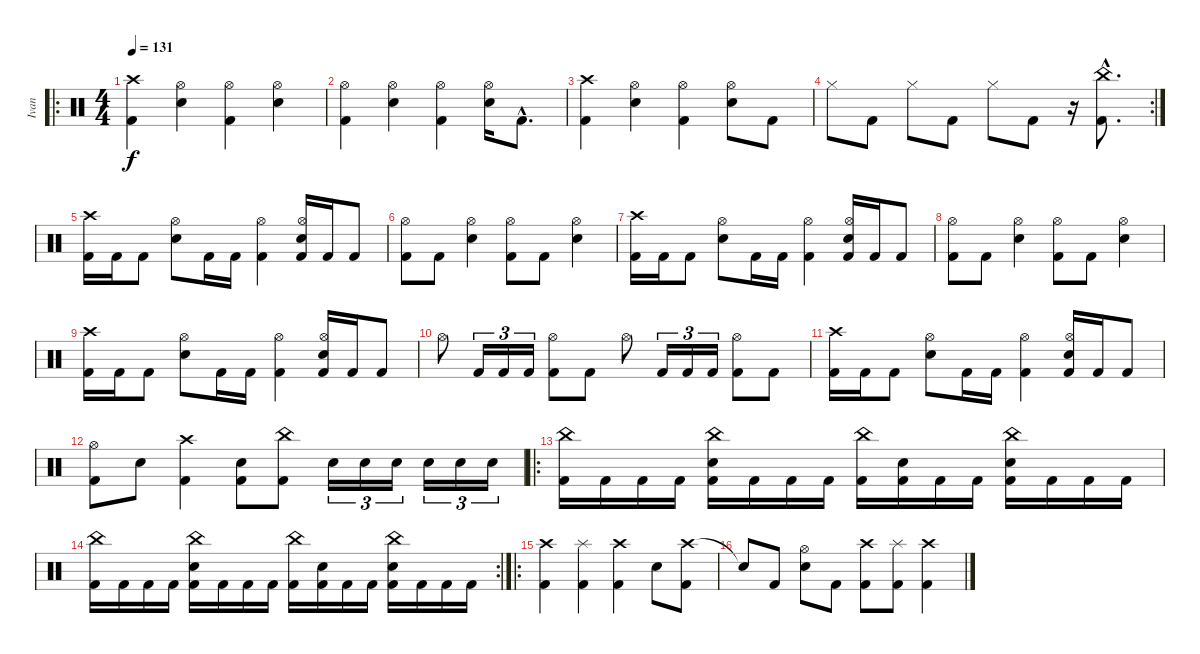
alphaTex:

\track ("Ivan" "Ivan") {instrument percussion}
\staff {score}
\articulation defaults
\ro
\ts (4 4)
\tempo 131
\clef neutral
\ks c
("Crash high (hit)" "Kick (hit) 2").4{dy f} ("Hi-Hat (open)" "Electric Snare (hit)").4 ("Hi-Hat (open)" "Kick (hit) 2").4 ("Hi-Hat (open)" "Electric Snare (hit)").4 |
("Hi-Hat (open)" "Kick (hit) 2").4 ("Hi-Hat (open)" "Electric Snare (hit)").4 ("Hi-Hat (open)" "Kick (hit) 2").4 ("Hi-Hat (open)" "Electric Snare (hit)").16 "Kick (hit) 2"{hac}.8{d} |
("Crash high (hit)" "Kick (hit) 2").4 ("Hi-Hat (open)" "Electric Snare (hit)").4 ("Hi-Hat (open)" "Kick (hit) 2").4 ("Hi-Hat (open)" "Electric Snare (hit)").8 "Kick (hit) 2".8 |
\rc 2 "Hi-Hat (closed)".8 "Kick (hit) 2".8 "Hi-Hat (closed)".8 "Kick (hit) 2".8 "Hi-Hat (closed)".8 "Kick (hit) 2".8
r.16 ("China (hit)"{hac} "Kick (hit) 2"{hac}).8{d} |
("Crash high (hit)" "Kick (hit) 2").16 "Kick (hit) 2".16 "Kick (hit) 2".8 ("Hi-Hat (open)" "Electric Snare (hit)").8 "Kick (hit) 2".16 "Kick (hit) 2".16 ("Hi-Hat (open)" "Kick (hit) 2").4 ("Hi-Hat (open)" "Electric Snare (hit)" "Kick (hit) 2").16 "Kick (hit) 2".16 "Kick (hit) 2".8 |
("Hi-Hat (open)" "Kick (hit) 2").8 "Kick (hit) 2".8 ("Hi-Hat (open)" "Electric Snare (hit)").4 ("Hi-Hat (open)" "Kick (hit) 2").8 "Kick (hit) 2".8 ("Hi-Hat (open)" "Electric Snare (hit)").4 |
("Crash high (hit)" "Kick (hit) 2").16 "Kick (hit) 2".16 "Kick (hit) 2".8 ("Hi-Hat (open)" "Electric Snare (hit)").8 "Kick (hit) 2".16 "Kick (hit) 2".16 ("Hi-Hat (open)" "Kick (hit) 2").4 ("Hi-Hat (open)" "Electric Snare (hit)" "Kick (hit) 2").16 "Kick (hit) 2".16 "Kick (hit) 2".8 |
("Hi-Hat (open)" "Kick (hit) 2").8 "Kick (hit) 2".8 ("Hi-Hat (open)" "Electric Snare (hit)").4 ("Hi-Hat (open)" "Kick (hit) 2").8 "Kick (hit) 2".8 ("Hi-Hat (open)" "Electric Snare (hit)").4 |
("Crash high (hit)" "Kick (hit) 2").16 "Kick (hit) 2".16 "Kick (hit) 2".8 ("Hi-Hat (open)" "Electric Snare (hit)").8 "Kick (hit) 2".16 "Kick (hit) 2".16 ("Hi-Hat (open)" "Kick (hit) 2").4 ("Hi-Hat (open)" "Electric Snare (hit)" "Kick (hit) 2").16 "Kick (hit) 2".16 "Kick (hit) 2".8 |
"Hi-Hat (open)".8 "Kick (hit) 2".16{tu (3 2)} "Kick (hit) 2".16{tu (3 2)} "Kick (hit) 2".16{tu (3 2)} ("Hi-Hat (open)" "Kick (hit) 2").8 "Kick (hit) 2".8 "Hi-Hat (open)".8 "Kick (hit) 2".16{tu (3 2)} "Kick (hit) 2".16{tu (3 2)} "Kick (hit) 2".16{tu (3 2)} ("Hi-Hat (open)" "Kick (hit) 2").8 "Kick (hit) 2".8 |
("Crash high (hit)" "Kick (hit) 2").16 "Kick (hit) 2".16 "Kick (hit) 2".8 ("Hi-Hat (open)" "Electric Snare (hit)").8 "Kick (hit) 2".16 "Kick (hit) 2".16 ("Hi-Hat (open)" "Kick (hit) 2").4 ("Hi-Hat (open)" "Electric Snare (hit)" "Kick (hit) 2").16 "Kick (hit) 2".16 "Kick (hit) 2".8 |
("Hi-Hat (open)" "Kick (hit) 2").8 "Electric Snare (hit)".8 ("Crash high (hit)" "Kick (hit) 2").4 ("Electric Snare (hit)" "Kick (hit) 2").8 ("China (hit)" "Kick (hit) 2").8 "Electric Snare (hit)".16{tu (3 2)} "Electric Snare (hit)".16{tu (3 2)} "Electric Snare (hit)".16{tu (3 2)} "Electric Snare (hit)".16{tu (3 2)} "Electric Snare (hit)".16{tu (3 2)} "Electric Snare (hit)".16{tu (3 2)} |
\ro
("China (hit)" "Kick (hit) 2").16 "Kick (hit) 2".16 "Kick (hit) 2".16 "Kick (hit) 2".16 ("China (hit)" "Electric Snare (hit)" "Kick (hit) 2").16 "Kick (hit) 2".16 "Kick (hit) 2".16 "Kick (hit) 2".16 ("China (hit)" "Kick (hit) 2").16 ("Electric Snare (hit)" "Kick (hit) 2").16 "Kick (hit) 2".16 "Kick (hit) 2".16 ("China (hit)" "Electric Snare (hit)" "Kick (hit) 2").16 "Kick (hit) 2".16 "Kick (hit) 2".16 "Kick (hit) 2".16 |
\rc 2
("China (hit)" "Kick (hit) 2").16 "Kick (hit) 2".16 "Kick (hit) 2".16 "Kick (hit) 2".16 ("China (hit)" "Electric Snare (hit)" "Kick (hit) 2").16 "Kick (hit) 2".16 "Kick (hit) 2".16 "Kick (hit) 2".16 ("China (hit)" "Kick (hit) 2").16 ("Electric Snare (hit)" "Kick (hit) 2").16 "Kick (hit) 2".16 "Kick (hit) 2".16 ("China (hit)" "Electric Snare (hit)" "Kick (hit) 2").16 "Kick (hit) 2".16 "Kick (hit) 2".16 "Kick (hit) 2".16 |
\ro
("Crash high (hit)" "Kick (hit) 2").4 ("Splash (hit)" "Kick (hit) 2").4 ("Crash high (hit)" "Kick (hit) 2").4 "Electric Snare (hit)".8 ("Crash high (hit)" "Kick (hit) 2").8 |
"Snare (hit)"{t}.8 "Kick (hit) 2".8 ("Hi-Hat (open)" "Electric Snare (hit)").8 "Kick (hit) 2".8 ("Crash high (hit)" "Kick (hit) 2").8 ("Splash (hit)" "Kick (hit) 2").8 ("Crash high (hit)" "Kick (hit) 2").4
